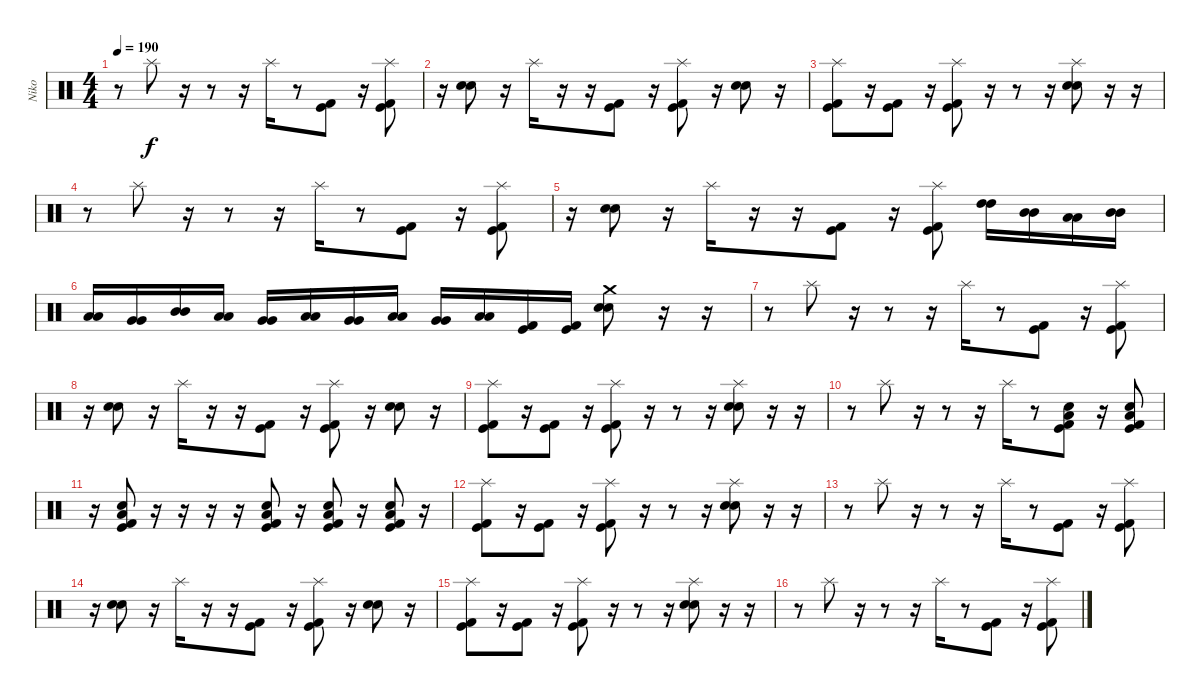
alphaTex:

\track ("Niko" "Niko") {instrument percussion}
\staff {score}
\articulation defaults
\ts (4 4)
\tempo 190
\clef neutral
\ks c
r.8{dy f} "Splash (hit)".8 r.16 r.8 r.16 "Splash (hit)".16 r.8 ("Kick (hit) 2" "Kick (hit)").8 r.16 ("Splash (hit)" "Kick (hit) 2" "Kick (hit)").8 |
r.16 ("Electric Snare (hit)" "Electric Snare (hit)").8 r.16 "Splash (hit)".16 r.16 r.16 ("Kick (hit) 2" "Kick (hit)").8 r.16 ("Splash (hit)" "Kick (hit) 2" "Kick (hit)").8 r.16 ("Electric Snare (hit)" "Electric Snare (hit)").8 r.16 |
("Splash (hit)" "Kick (hit) 2" "Kick (hit)").8 r.16 ("Kick (hit) 2" "Kick (hit)").8 r.16 ("Splash (hit)" "Kick (hit)" "Kick (hit) 2").8 r.16 r.8 r.16 ("Splash (hit)" "Electric Snare (hit)" "Electric Snare (hit)").8 r.16 r.16 |
r.8 "Splash (hit)".8 r.16 r.8 r.16 "Splash (hit)".16 r.8 ("Kick (hit) 2" "Kick (hit)").8 r.16 ("Splash (hit)" "Kick (hit) 2" "Kick (hit)").8 |
r.16 ("Electric Snare (hit)" "Electric Snare (hit)").8 r.16 "Splash (hit)".16 r.16 r.16 ("Kick (hit) 2" "Kick (hit)").8 r.16 ("Splash (hit)" "Kick (hit) 2" "Kick (hit)").8 ("High Tom (hit)" "High Tom (hit)").16 ("Mid Tom (hit)" "Mid Tom (hit)").16 ("Low Tom (hit)" "Low Tom (hit)").16 ("Mid Tom (hit)" "Mid Tom (hit)").16 |
("Low Tom (hit)" "Low Tom (hit)").16 ("Very Low Tom (hit)" "Very Low Tom (hit)").16 ("Mid Tom (hit)" "Mid Tom (hit)").16 ("Low Tom (hit)" "Low Tom (hit)").16 ("Very Low Tom (hit)" "Very Low Tom (hit)").16 ("Low Tom (hit)" "Low Tom (hit)").16 ("Very Low Tom (hit)" "Very Low Tom (hit)").16 ("Low Floor Tom (hit)" "Low Floor Tom (hit)").16 ("Very Low Tom (hit)" "Very Low Tom (hit)").16 ("Low Floor Tom (hit)" "Low Floor Tom (hit)").16 ("Kick (hit) 2" "Kick (hit)").16 ("Kick (hit)" "Kick (hit) 2").16 ("Crash medium (hit)" "Electric Snare (hit)" "Electric Snare (hit)").8 r.16 r.16 |
r.8 "Splash (hit)".8 r.16 r.8 r.16 "Splash (hit)".16 r.8 ("Kick (hit) 2" "Kick (hit)").8 r.16 ("Splash (hit)" "Kick (hit) 2" "Kick (hit)").8 |
r.16 ("Electric Snare (hit)" "Electric Snare (hit)").8 r.16 "Splash (hit)".16 r.16 r.16 ("Kick (hit) 2" "Kick (hit)").8 r.16 ("Splash (hit)" "Kick (hit) 2" "Kick (hit)").8 r.16 ("Electric Snare (hit)" "Electric Snare (hit)").8 r.16 |
("Splash (hit)" "Kick (hit) 2" "Kick (hit)").8 r.16 ("Kick (hit) 2" "Kick (hit)").8 r.16 ("Splash (hit)" "Kick (hit)" "Kick (hit) 2").8 r.16 r.8 r.16 ("Splash (hit)" "Electric Snare (hit)" "Electric Snare (hit)").8 r.16 r.16 |
r.8 "Splash (hit)".8 r.16 r.8 r.16 "Splash (hit)".16 r.8 ("Electric Snare (hit)" "Low Floor Tom (hit)" "Kick (hit) 2" "Kick (hit)").8 r.16 ("Electric Snare (hit)" "Low Floor Tom (hit)" "Kick (hit) 2" "Kick (hit)").8 |
r.16 ("Electric Snare (hit)" "Low Floor Tom (hit)" "Kick (hit)" "Kick (hit) 2").8 r.16 r.16 r.16 r.16 ("Low Floor Tom (hit)" "Electric Snare (hit)" "Kick (hit) 2" "Kick (hit)").8 r.16 ("Low Floor Tom (hit)" "Electric Snare (hit)" "Kick (hit) 2" "Kick (hit)").8 r.16 ("Electric Snare (hit)" "Low Floor Tom (hit)" "Kick (hit) 2" "Kick (hit)").8 r.16 |
("Splash (hit)" "Kick (hit) 2" "Kick (hit)").8 r.16 ("Kick (hit) 2" "Kick (hit)").8 r.16 ("Splash (hit)" "Kick (hit)" "Kick (hit) 2").8 r.16 r.8 r.16 ("Splash (hit)" "Electric Snare (hit)" "Electric Snare (hit)").8 r.16 r.16 |
r.8 "Splash (hit)".8 r.16 r.8 r.16 "Splash (hit)".16 r.8 ("Kick (hit) 2" "Kick (hit)").8 r.16 ("Splash (hit)" "Kick (hit) 2" "Kick (hit)").8 |
r.16 ("Electric Snare (hit)" "Electric Snare (hit)").8 r.16 "Splash (hit)".16 r.16 r.16 ("Kick (hit) 2" "Kick (hit)").8 r.16 ("Splash (hit)" "Kick (hit) 2" "Kick (hit)").8 r.16 ("Electric Snare (hit)" "Electric Snare (hit)").8 r.16 |
("Splash (hit)" "Kick (hit) 2" "Kick (hit)").8 r.16 ("Kick (hit) 2" "Kick (hit)").8 r.16 ("Splash (hit)" "Kick (hit)" "Kick (hit) 2").8 r.16 r.8 r.16 ("Splash (hit)" "Electric Snare (hit)" "Electric Snare (hit)").8 r.16 r.16 |
r.8 "Splash (hit)".8 r.16 r.8 r.16 "Splash (hit)".16 r.8 ("Kick (hit) 2" "Kick (hit)").8 r.16 ("Splash (hit)" "Kick (hit) 2" "Kick (hit)").8
